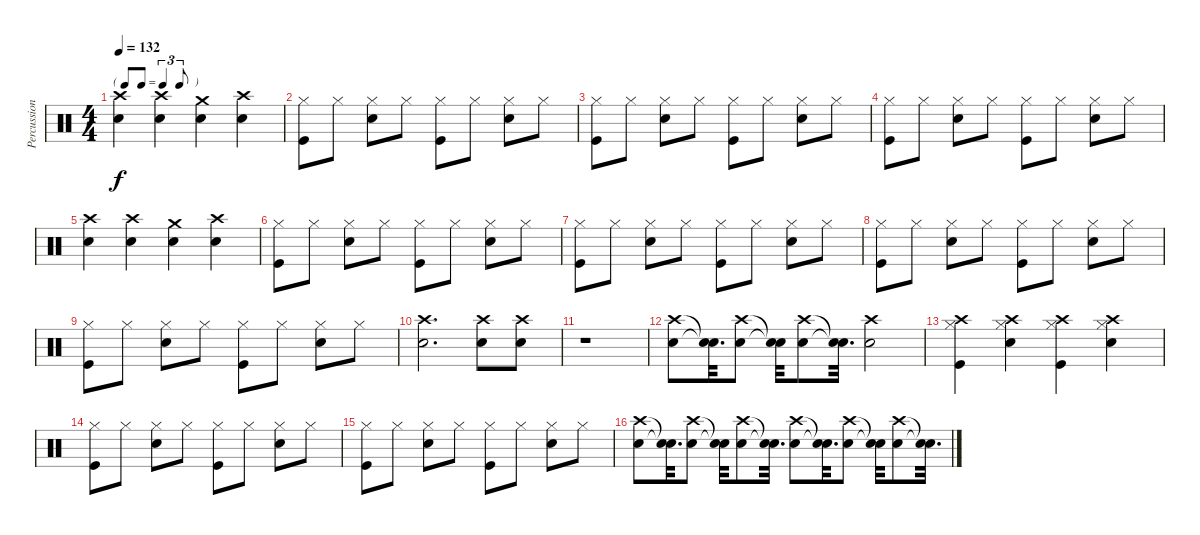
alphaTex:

\track ("Percussion" "Percussion") {instrument percussion}
\staff {score}
\articulation defaults
\ts (4 4)
\tf triplet8th
\tempo 132
\clef neutral
\ks c
("Crash high (hit)" "Snare (hit) 2").4{dy f} ("Crash high (hit)" "Snare (hit) 2").4 ("Crash medium (hit)" "Snare (hit) 2").4 ("Crash high (hit)" "Snare (hit) 2").4 |
("Hi-Hat (closed)" "Kick (hit)").8 "Hi-Hat (closed)".8 ("Hi-Hat (closed)" "Snare (hit) 2").8 "Hi-Hat (closed)".8 ("Hi-Hat (closed)" "Kick (hit)").8 "Hi-Hat (closed)".8 ("Hi-Hat (closed)" "Snare (hit) 2").8 "Hi-Hat (closed)".8 |
("Hi-Hat (closed)" "Kick (hit)").8 "Hi-Hat (closed)".8 ("Hi-Hat (closed)" "Snare (hit) 2").8 "Hi-Hat (closed)".8 ("Hi-Hat (closed)" "Kick (hit)").8 "Hi-Hat (closed)".8 ("Hi-Hat (closed)" "Snare (hit) 2").8 "Hi-Hat (closed)".8 |
("Hi-Hat (closed)" "Kick (hit)").8 "Hi-Hat (closed)".8 ("Hi-Hat (closed)" "Snare (hit) 2").8 "Hi-Hat (closed)".8 ("Hi-Hat (closed)" "Kick (hit)").8 "Hi-Hat (closed)".8 ("Hi-Hat (closed)" "Snare (hit) 2").8 "Hi-Hat (closed)".8 |
("Crash high (hit)" "Snare (hit) 2").4 ("Crash high (hit)" "Snare (hit) 2").4 ("Crash medium (hit)" "Snare (hit) 2").4 ("Crash high (hit)" "Snare (hit) 2").4 |
("Hi-Hat (closed)" "Kick (hit)").8 "Hi-Hat (closed)".8 ("Hi-Hat (closed)" "Snare (hit) 2").8 "Hi-Hat (closed)".8 ("Hi-Hat (closed)" "Kick (hit)").8 "Hi-Hat (closed)".8 ("Hi-Hat (closed)" "Snare (hit) 2").8 "Hi-Hat (closed)".8 |
("Hi-Hat (closed)" "Kick (hit)").8 "Hi-Hat (closed)".8 ("Hi-Hat (closed)" "Snare (hit) 2").8 "Hi-Hat (closed)".8 ("Hi-Hat (closed)" "Kick (hit)").8 "Hi-Hat (closed)".8 ("Hi-Hat (closed)" "Snare (hit) 2").8 "Hi-Hat (closed)".8 |
("Hi-Hat (closed)" "Kick (hit)").8 "Hi-Hat (closed)".8 ("Hi-Hat (closed)" "Snare (hit) 2").8 "Hi-Hat (closed)".8 ("Hi-Hat (closed)" "Kick (hit)").8 "Hi-Hat (closed)".8 ("Hi-Hat (closed)" "Snare (hit) 2").8 "Hi-Hat (closed)".8 |
("Hi-Hat (closed)" "Kick (hit)").8 "Hi-Hat (closed)".8 ("Hi-Hat (closed)" "Snare (hit) 2").8 "Hi-Hat (closed)".8 ("Hi-Hat (closed)" "Kick (hit)").8 "Hi-Hat (closed)".8 ("Hi-Hat (closed)" "Snare (hit) 2").8 "Hi-Hat (closed)".8 |
("Crash high (hit)" "Snare (hit) 2").2{d} ("Crash high (hit)" "Snare (hit) 2").8 ("Crash high (hit)" "Snare (hit) 2").8 |
r.1 |
("Crash high (hit)" "Snare (hit) 2").8 ("Snare (hit)"{t} "Snare (hit)"{t}).32{d} ("Crash high (hit)" "Snare (hit) 2").8 ("Snare (hit)"{t} "Snare (hit)"{t}).32 ("Crash high (hit)" "Snare (hit) 2").8 ("Snare (hit)"{t} "Snare (hit)"{t}).32{d} ("Crash high (hit)" "Snare (hit) 2").2 |
("Hi-Hat (closed)" "Crash high (hit)" "Kick (hit)").4 ("Hi-Hat (closed)" "Crash high (hit)" "Snare (hit) 2").4 ("Hi-Hat (closed)" "Crash high (hit)" "Kick (hit)").4 ("Hi-Hat (closed)" "Crash high (hit)" "Snare (hit) 2").4 |
("Hi-Hat (closed)" "Kick (hit)").8 "Hi-Hat (closed)".8 ("Hi-Hat (closed)" "Snare (hit) 2").8 "Hi-Hat (closed)".8 ("Hi-Hat (closed)" "Kick (hit)").8 "Hi-Hat (closed)".8 ("Hi-Hat (closed)" "Snare (hit) 2").8 "Hi-Hat (closed)".8 |
("Hi-Hat (closed)" "Kick (hit)").8 "Hi-Hat (closed)".8 ("Hi-Hat (closed)" "Snare (hit) 2").8 "Hi-Hat (closed)".8 ("Hi-Hat (closed)" "Kick (hit)").8 "Hi-Hat (closed)".8 ("Hi-Hat (closed)" "Snare (hit) 2").8 "Hi-Hat (closed)".8 |
("Crash high (hit)" "Snare (hit) 2").8 ("Snare (hit)"{t} "Snare (hit)"{t}).32{d} ("Crash high (hit)" "Snare (hit) 2").8 ("Snare (hit)"{t} "Snare (hit)"{t}).32 ("Crash high (hit)" "Snare (hit) 2").8 ("Snare (hit)"{t} "Snare (hit)"{t}).32{d} ("Crash high (hit)" "Snare (hit) 2").8 ("Snare (hit)"{t} "Snare (hit)"{t}).32{d} ("Crash high (hit)" "Snare (hit) 2").8 ("Snare (hit)"{t} "Snare (hit)"{t}).32 ("Crash high (hit)" "Snare (hit) 2").8 ("Snare (hit)"{t} "Snare (hit)"{t}).32{d}
